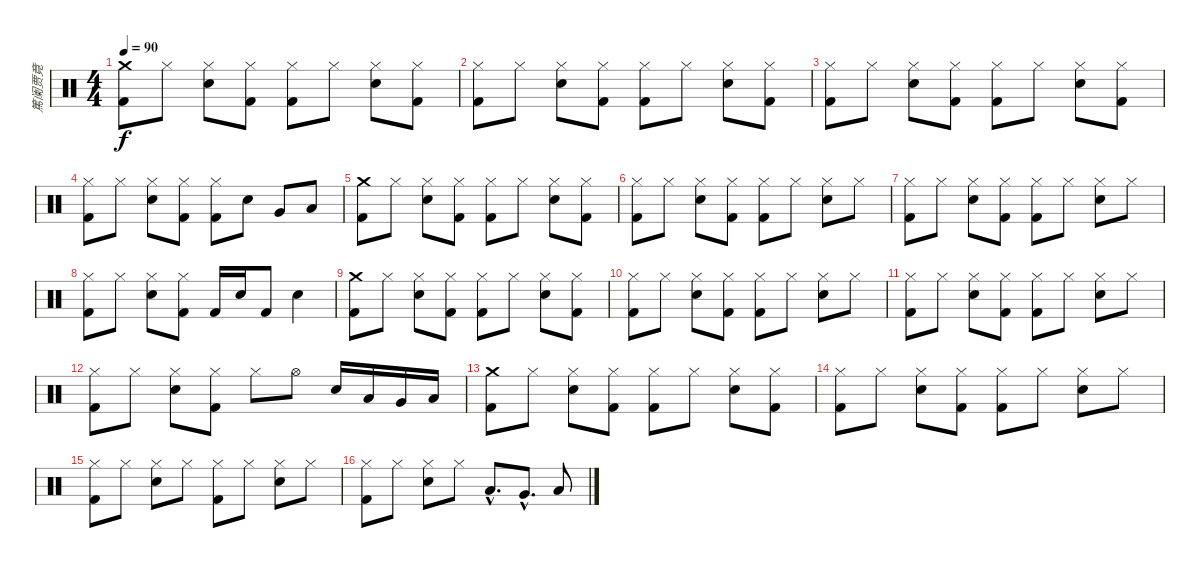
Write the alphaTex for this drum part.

\track ("篤阑贾竟" "篤阑贾竟") {instrument percussion}
\staff {score}
\articulation defaults
\ts (4 4)
\tempo 90
\clef neutral
\ks c
("Crash medium (hit)" "Kick (hit) 2").8{dy f} "Hi-Hat (closed)".8 ("Hi-Hat (closed)" "Snare (hit) 2").8 ("Hi-Hat (closed)" "Kick (hit) 2").8 ("Hi-Hat (closed)" "Kick (hit) 2").8 "Hi-Hat (closed)".8 ("Hi-Hat (closed)" "Snare (hit) 2").8 ("Hi-Hat (closed)" "Kick (hit) 2").8 |
("Hi-Hat (closed)" "Kick (hit) 2").8 "Hi-Hat (closed)".8 ("Hi-Hat (closed)" "Snare (hit) 2").8 ("Hi-Hat (closed)" "Kick (hit) 2").8 ("Hi-Hat (closed)" "Kick (hit) 2").8 "Hi-Hat (closed)".8 ("Hi-Hat (closed)" "Snare (hit) 2").8 ("Hi-Hat (closed)" "Kick (hit) 2").8 |
("Hi-Hat (closed)" "Kick (hit) 2").8 "Hi-Hat (closed)".8 ("Hi-Hat (closed)" "Snare (hit) 2").8 ("Hi-Hat (closed)" "Kick (hit) 2").8 ("Hi-Hat (closed)" "Kick (hit) 2").8 "Hi-Hat (closed)".8 ("Hi-Hat (closed)" "Snare (hit) 2").8 ("Hi-Hat (closed)" "Kick (hit) 2").8 |
("Hi-Hat (closed)" "Kick (hit) 2").8 "Hi-Hat (closed)".8 ("Hi-Hat (closed)" "Snare (hit) 2").8 ("Hi-Hat (closed)" "Kick (hit) 2").8 ("Hi-Hat (closed)" "Kick (hit) 2").8 "Snare (hit) 2".8 "Very Low Tom (hit)".8 "Low Floor Tom (hit)".8 |
("Crash medium (hit)" "Kick (hit) 2").8 "Hi-Hat (closed)".8 ("Hi-Hat (closed)" "Snare (hit) 2").8 ("Hi-Hat (closed)" "Kick (hit) 2").8 ("Hi-Hat (closed)" "Kick (hit) 2").8 "Hi-Hat (closed)".8 ("Hi-Hat (closed)" "Snare (hit) 2").8 ("Hi-Hat (closed)" "Kick (hit) 2").8 |
("Hi-Hat (closed)" "Kick (hit) 2").8 "Hi-Hat (closed)".8 ("Hi-Hat (closed)" "Snare (hit) 2").8 ("Hi-Hat (closed)" "Kick (hit) 2").8 ("Hi-Hat (closed)" "Kick (hit) 2").8 "Hi-Hat (closed)".8 ("Hi-Hat (closed)" "Snare (hit) 2").8 "Hi-Hat (closed)".8 |
("Hi-Hat (closed)" "Kick (hit) 2").8 "Hi-Hat (closed)".8 ("Hi-Hat (closed)" "Snare (hit) 2").8 ("Hi-Hat (closed)" "Kick (hit) 2").8 ("Hi-Hat (closed)" "Kick (hit) 2").8 "Hi-Hat (closed)".8 ("Hi-Hat (closed)" "Snare (hit) 2").8 "Hi-Hat (closed)".8 |
("Hi-Hat (closed)" "Kick (hit) 2").8 "Hi-Hat (closed)".8 ("Hi-Hat (closed)" "Snare (hit) 2").8 ("Hi-Hat (closed)" "Kick (hit) 2").8 "Kick (hit) 2".16 "Snare (hit) 2".16 "Kick (hit) 2".8 "Snare (hit) 2".4 |
("Crash medium (hit)" "Kick (hit) 2").8 "Hi-Hat (closed)".8 ("Hi-Hat (closed)" "Snare (hit) 2").8 ("Hi-Hat (closed)" "Kick (hit) 2").8 ("Hi-Hat (closed)" "Kick (hit) 2").8 "Hi-Hat (closed)".8 ("Hi-Hat (closed)" "Snare (hit) 2").8 ("Hi-Hat (closed)" "Kick (hit) 2").8 |
("Hi-Hat (closed)" "Kick (hit) 2").8 "Hi-Hat (closed)".8 ("Hi-Hat (closed)" "Snare (hit) 2").8 ("Hi-Hat (closed)" "Kick (hit) 2").8 ("Hi-Hat (closed)" "Kick (hit) 2").8 "Hi-Hat (closed)".8 ("Hi-Hat (closed)" "Snare (hit) 2").8 "Hi-Hat (closed)".8 |
("Hi-Hat (closed)" "Kick (hit) 2").8 "Hi-Hat (closed)".8 ("Hi-Hat (closed)" "Snare (hit) 2").8 ("Hi-Hat (closed)" "Kick (hit) 2").8 ("Hi-Hat (closed)" "Kick (hit) 2").8 "Hi-Hat (closed)".8 ("Hi-Hat (closed)" "Snare (hit) 2").8 "Hi-Hat (closed)".8 |
("Hi-Hat (closed)" "Kick (hit) 2").8 "Hi-Hat (closed)".8 ("Hi-Hat (closed)" "Snare (hit) 2").8 ("Hi-Hat (closed)" "Kick (hit) 2").8 "Hi-Hat (closed)".8 "Hi-Hat (open)".8 "Snare (hit) 2".16 "Low Tom (hit)".16 "Very Low Tom (hit)".16 "Low Floor Tom (hit)".16 |
("Crash medium (hit)" "Kick (hit) 2").8 "Hi-Hat (closed)".8 ("Hi-Hat (closed)" "Snare (hit) 2").8 ("Hi-Hat (closed)" "Kick (hit) 2").8 ("Hi-Hat (closed)" "Kick (hit) 2").8 "Hi-Hat (closed)".8 ("Hi-Hat (closed)" "Snare (hit) 2").8 ("Hi-Hat (closed)" "Kick (hit) 2").8 |
("Hi-Hat (closed)" "Kick (hit) 2").8 "Hi-Hat (closed)".8 ("Hi-Hat (closed)" "Snare (hit) 2").8 ("Hi-Hat (closed)" "Kick (hit) 2").8 ("Hi-Hat (closed)" "Kick (hit) 2").8 "Hi-Hat (closed)".8 ("Hi-Hat (closed)" "Snare (hit) 2").8 "Hi-Hat (closed)".8 |
("Hi-Hat (closed)" "Kick (hit) 2").8 "Hi-Hat (closed)".8 ("Hi-Hat (closed)" "Snare (hit) 2").8 "Hi-Hat (closed)".8 ("Hi-Hat (closed)" "Kick (hit) 2").8 "Hi-Hat (closed)".8 ("Hi-Hat (closed)" "Snare (hit) 2").8 "Hi-Hat (closed)".8 |
("Hi-Hat (closed)" "Kick (hit) 2").8 "Hi-Hat (closed)".8 ("Hi-Hat (closed)" "Snare (hit) 2").8 "Hi-Hat (closed)".8 "Low Tom (hit)"{hac}.8{d} "Very Low Tom (hit)"{hac}.8{d} "Low Floor Tom (hit)".8
